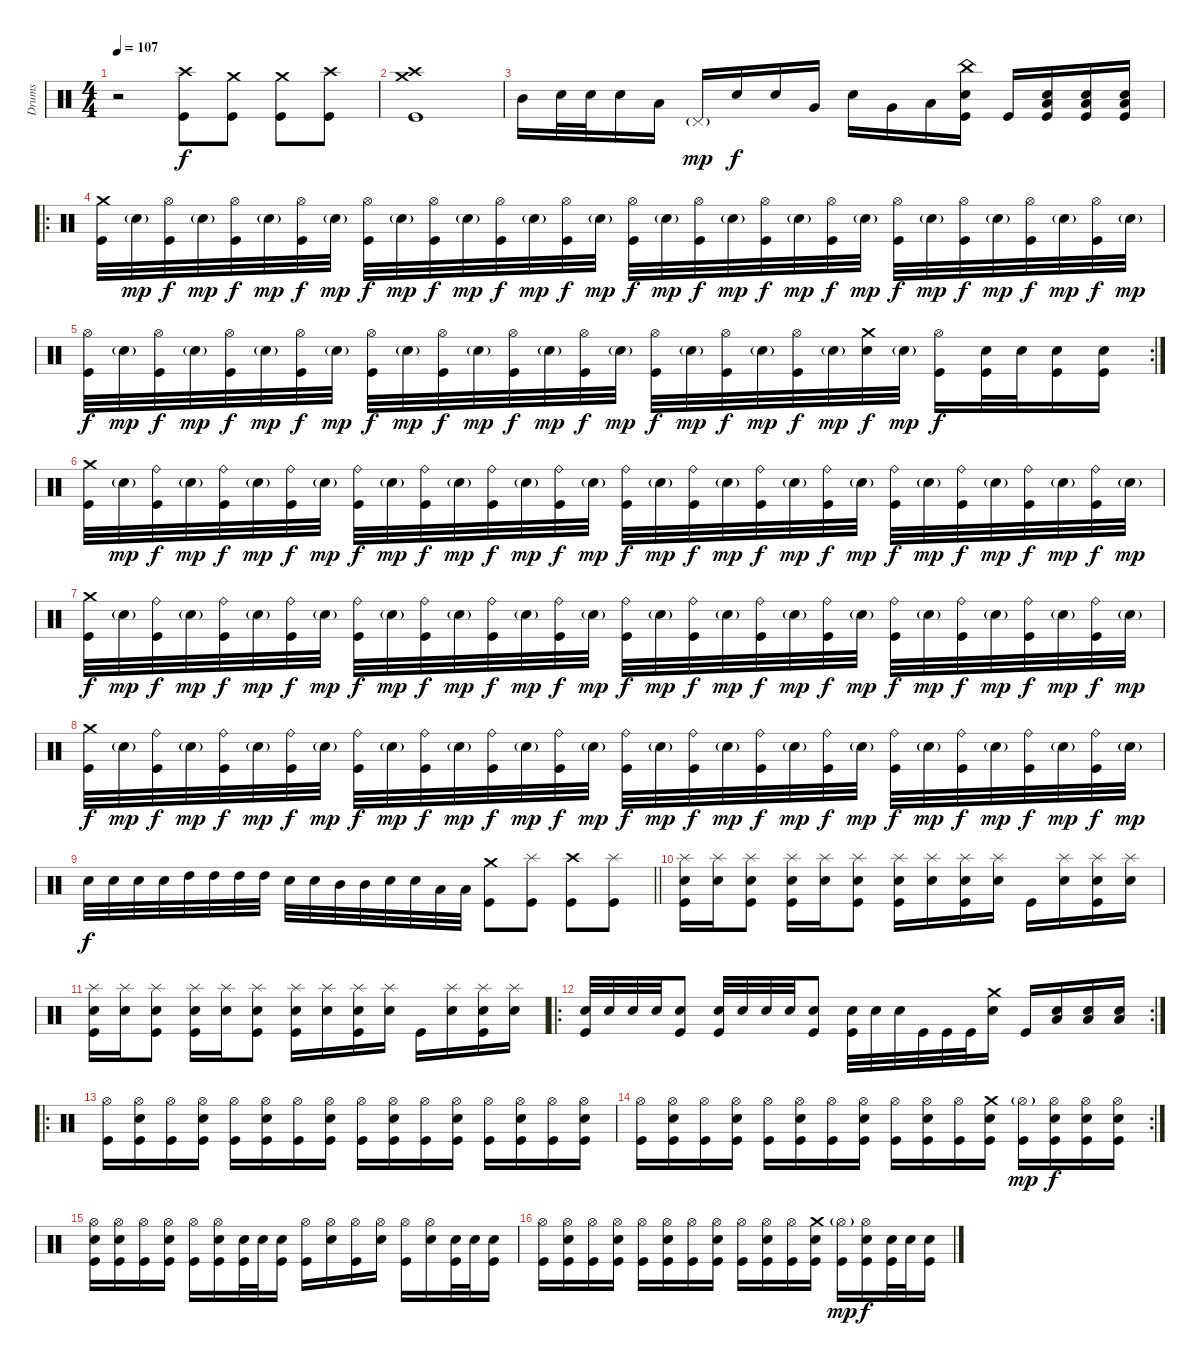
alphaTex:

\track ("Drums" "Drums") {instrument percussion}
\staff {score}
\articulation defaults
\ts (4 4)
\tempo 107
\clef neutral
\ks c
r.2{dy f} ("Crash high (hit)" "Kick (hit)").8 ("Crash medium (hit)" "Kick (hit)").8 ("Crash medium (hit)" "Kick (hit)").8 ("Crash high (hit)" "Kick (hit)").8 |
("Crash high (hit)" "Crash medium (hit)" "Kick (hit)").1 |
"Mid Tom (hit)".16 "Electric Snare (hit)".32 "Electric Snare (hit)".32 "Electric Snare (hit)".16 "Low Tom (hit)".16 "Pedal Hi-Hat (hit)"{g}.16{dy mp} "Electric Snare (hit)".16{dy f} "Electric Snare (hit)".16 "Very Low Tom (hit)".16 "Electric Snare (hit)".16 "Very Low Tom (hit)".16 "Low Floor Tom (hit)".16 ("China (hit)" "Electric Snare (hit)" "Kick (hit)").16 "Kick (hit)".16 ("Low Floor Tom (hit)" "Electric Snare (hit)" "Kick (hit)").16 ("Low Floor Tom (hit)" "Electric Snare (hit)" "Kick (hit)").16 ("Low Floor Tom (hit)" "Electric Snare (hit)" "Kick (hit)").16 |
\ro
("Crash medium (hit)" "Kick (hit)").32 "Electric Snare (hit)"{g}.32{dy mp} ("Hi-Hat (open)" "Kick (hit)").32{dy f} "Electric Snare (hit)"{g}.32{dy mp} ("Hi-Hat (open)" "Kick (hit)").32{dy f} "Electric Snare (hit)"{g}.32{dy mp} ("Hi-Hat (open)" "Kick (hit)").32{dy f} "Electric Snare (hit)"{g}.32{dy mp} ("Hi-Hat (open)" "Kick (hit)").32{dy f} "Electric Snare (hit)"{g}.32{dy mp} ("Hi-Hat (open)" "Kick (hit)").32{dy f} "Electric Snare (hit)"{g}.32{dy mp} ("Hi-Hat (open)" "Kick (hit)").32{dy f} "Electric Snare (hit)"{g}.32{dy mp} ("Hi-Hat (open)" "Kick (hit)").32{dy f} "Electric Snare (hit)"{g}.32{dy mp} ("Hi-Hat (open)" "Kick (hit)").32{dy f} "Electric Snare (hit)"{g}.32{dy mp} ("Hi-Hat (open)" "Kick (hit)").32{dy f} "Electric Snare (hit)"{g}.32{dy mp} ("Hi-Hat (open)" "Kick (hit)").32{dy f} "Electric Snare (hit)"{g}.32{dy mp} ("Hi-Hat (open)" "Kick (hit)").32{dy f} "Electric Snare (hit)"{g}.32{dy mp} ("Hi-Hat (open)" "Kick (hit)").32{dy f} "Electric Snare (hit)"{g}.32{dy mp} ("Hi-Hat (open)" "Kick (hit)").32{dy f} "Electric Snare (hit)"{g}.32{dy mp} ("Hi-Hat (open)" "Kick (hit)").32{dy f} "Electric Snare (hit)"{g}.32{dy mp} ("Hi-Hat (open)" "Kick (hit)").32{dy f} "Electric Snare (hit)"{g}.32{dy mp} |
\rc 2
("Hi-Hat (open)" "Kick (hit)").32{dy f} "Electric Snare (hit)"{g}.32{dy mp} ("Hi-Hat (open)" "Kick (hit)").32{dy f} "Electric Snare (hit)"{g}.32{dy mp} ("Hi-Hat (open)" "Kick (hit)").32{dy f} "Electric Snare (hit)"{g}.32{dy mp} ("Hi-Hat (open)" "Kick (hit)").32{dy f} "Electric Snare (hit)"{g}.32{dy mp} ("Hi-Hat (open)" "Kick (hit)").32{dy f} "Electric Snare (hit)"{g}.32{dy mp} ("Hi-Hat (open)" "Kick (hit)").32{dy f} "Electric Snare (hit)"{g}.32{dy mp} ("Hi-Hat (open)" "Kick (hit)").32{dy f} "Electric Snare (hit)"{g}.32{dy mp} ("Hi-Hat (open)" "Kick (hit)").32{dy f} "Electric Snare (hit)"{g}.32{dy mp} ("Hi-Hat (open)" "Kick (hit)").32{dy f} "Electric Snare (hit)"{g}.32{dy mp} ("Hi-Hat (open)" "Kick (hit)").32{dy f} "Electric Snare (hit)"{g}.32{dy mp} ("Hi-Hat (open)" "Kick (hit)").32{dy f} "Electric Snare (hit)"{g}.32{dy mp} ("Crash medium (hit)" "Electric Snare (hit)").32{dy f} "Electric Snare (hit)"{g}.32{dy mp} ("Hi-Hat (open)" "Kick (hit)").16{dy f} ("Kick (hit)" "Electric Snare (hit)").32 "Electric Snare (hit)".32 ("Kick (hit)" "Electric Snare (hit)").16 ("Kick (hit)" "Electric Snare (hit)").16 |
("Crash medium (hit)" "Kick (hit)").32 "Electric Snare (hit)"{g}.32{dy mp} ("Ride (bell)" "Kick (hit)").32{dy f} "Electric Snare (hit)"{g}.32{dy mp} ("Ride (bell)" "Kick (hit)").32{dy f} "Electric Snare (hit)"{g}.32{dy mp} ("Ride (bell)" "Kick (hit)").32{dy f} "Electric Snare (hit)"{g}.32{dy mp} ("Ride (bell)" "Kick (hit)").32{dy f} "Electric Snare (hit)"{g}.32{dy mp} ("Ride (bell)" "Kick (hit)").32{dy f} "Electric Snare (hit)"{g}.32{dy mp} ("Ride (bell)" "Kick (hit)").32{dy f} "Electric Snare (hit)"{g}.32{dy mp} ("Ride (bell)" "Kick (hit)").32{dy f} "Electric Snare (hit)"{g}.32{dy mp} ("Ride (bell)" "Kick (hit)").32{dy f} "Electric Snare (hit)"{g}.32{dy mp} ("Ride (bell)" "Kick (hit)").32{dy f} "Electric Snare (hit)"{g}.32{dy mp} ("Ride (bell)" "Kick (hit)").32{dy f} "Electric Snare (hit)"{g}.32{dy mp} ("Ride (bell)" "Kick (hit)").32{dy f} "Electric Snare (hit)"{g}.32{dy mp} ("Ride (bell)" "Kick (hit)").32{dy f} "Electric Snare (hit)"{g}.32{dy mp} ("Ride (bell)" "Kick (hit)").32{dy f} "Electric Snare (hit)"{g}.32{dy mp} ("Ride (bell)" "Kick (hit)").32{dy f} "Electric Snare (hit)"{g}.32{dy mp} ("Ride (bell)" "Kick (hit)").32{dy f} "Electric Snare (hit)"{g}.32{dy mp} |
("Crash medium (hit)" "Kick (hit)").32{dy f} "Electric Snare (hit)"{g}.32{dy mp} ("Ride (bell)" "Kick (hit)").32{dy f} "Electric Snare (hit)"{g}.32{dy mp} ("Ride (bell)" "Kick (hit)").32{dy f} "Electric Snare (hit)"{g}.32{dy mp} ("Ride (bell)" "Kick (hit)").32{dy f} "Electric Snare (hit)"{g}.32{dy mp} ("Ride (bell)" "Kick (hit)").32{dy f} "Electric Snare (hit)"{g}.32{dy mp} ("Ride (bell)" "Kick (hit)").32{dy f} "Electric Snare (hit)"{g}.32{dy mp} ("Ride (bell)" "Kick (hit)").32{dy f} "Electric Snare (hit)"{g}.32{dy mp} ("Ride (bell)" "Kick (hit)").32{dy f} "Electric Snare (hit)"{g}.32{dy mp} ("Ride (bell)" "Kick (hit)").32{dy f} "Electric Snare (hit)"{g}.32{dy mp} ("Ride (bell)" "Kick (hit)").32{dy f} "Electric Snare (hit)"{g}.32{dy mp} ("Ride (bell)" "Kick (hit)").32{dy f} "Electric Snare (hit)"{g}.32{dy mp} ("Ride (bell)" "Kick (hit)").32{dy f} "Electric Snare (hit)"{g}.32{dy mp} ("Ride (bell)" "Kick (hit)").32{dy f} "Electric Snare (hit)"{g}.32{dy mp} ("Ride (bell)" "Kick (hit)").32{dy f} "Electric Snare (hit)"{g}.32{dy mp} ("Ride (bell)" "Kick (hit)").32{dy f} "Electric Snare (hit)"{g}.32{dy mp} ("Ride (bell)" "Kick (hit)").32{dy f} "Electric Snare (hit)"{g}.32{dy mp} |
("Crash medium (hit)" "Kick (hit)").32{dy f} "Electric Snare (hit)"{g}.32{dy mp} ("Ride (bell)" "Kick (hit)").32{dy f} "Electric Snare (hit)"{g}.32{dy mp} ("Ride (bell)" "Kick (hit)").32{dy f} "Electric Snare (hit)"{g}.32{dy mp} ("Ride (bell)" "Kick (hit)").32{dy f} "Electric Snare (hit)"{g}.32{dy mp} ("Ride (bell)" "Kick (hit)").32{dy f} "Electric Snare (hit)"{g}.32{dy mp} ("Ride (bell)" "Kick (hit)").32{dy f} "Electric Snare (hit)"{g}.32{dy mp} ("Ride (bell)" "Kick (hit)").32{dy f} "Electric Snare (hit)"{g}.32{dy mp} ("Ride (bell)" "Kick (hit)").32{dy f} "Electric Snare (hit)"{g}.32{dy mp} ("Ride (bell)" "Kick (hit)").32{dy f} "Electric Snare (hit)"{g}.32{dy mp} ("Ride (bell)" "Kick (hit)").32{dy f} "Electric Snare (hit)"{g}.32{dy mp} ("Ride (bell)" "Kick (hit)").32{dy f} "Electric Snare (hit)"{g}.32{dy mp} ("Ride (bell)" "Kick (hit)").32{dy f} "Electric Snare (hit)"{g}.32{dy mp} ("Ride (bell)" "Kick (hit)").32{dy f} "Electric Snare (hit)"{g}.32{dy mp} ("Ride (bell)" "Kick (hit)").32{dy f} "Electric Snare (hit)"{g}.32{dy mp} ("Ride (bell)" "Kick (hit)").32{dy f} "Electric Snare (hit)"{g}.32{dy mp} ("Ride (bell)" "Kick (hit)").32{dy f} "Electric Snare (hit)"{g}.32{dy mp} |
\barLineRight lightlight "Electric Snare (hit)".32{dy f} "Electric Snare (hit)".32 "Electric Snare (hit)".32 "Electric Snare (hit)".32 "High Tom (hit)".32 "High Tom (hit)".32 "High Tom (hit)".32 "High Tom (hit)".32 "Electric Snare (hit)".32 "Electric Snare (hit)".32 "Mid Tom (hit)".32 "Mid Tom (hit)".32 "Electric Snare (hit)".32 "Electric Snare (hit)".32 "Low Tom (hit)".32 "Low Tom (hit)".32
("Crash medium (hit)" "Kick (hit)").8 ("Splash (hit)" "Kick (hit)").8 ("Crash high (hit)" "Kick (hit)").8 ("Splash (hit)" "Kick (hit)").8 |
("Electric Snare (hit)" "Splash (hit)" "Kick (hit)").16 ("Electric Snare (hit)" "Splash (hit)").16 ("Electric Snare (hit)" "Splash (hit)" "Kick (hit)").8 ("Splash (hit)" "Electric Snare (hit)" "Kick (hit)").16 ("Splash (hit)" "Electric Snare (hit)").16 ("Splash (hit)" "Electric Snare (hit)" "Kick (hit)").8 ("Splash (hit)" "Electric Snare (hit)" "Kick (hit)").16 ("Splash (hit)" "Electric Snare (hit)").16 ("Splash (hit)" "Electric Snare (hit)" "Kick (hit)").16 ("Splash (hit)" "Electric Snare (hit)").16 "Kick (hit)".16 ("Splash (hit)" "Electric Snare (hit)").16 ("Splash (hit)" "Electric Snare (hit)" "Kick (hit)").16 ("Splash (hit)" "Electric Snare (hit)").16 |
("Electric Snare (hit)" "Splash (hit)" "Kick (hit)").16 ("Electric Snare (hit)" "Splash (hit)").16 ("Electric Snare (hit)" "Splash (hit)" "Kick (hit)").8 ("Splash (hit)" "Electric Snare (hit)" "Kick (hit)").16 ("Splash (hit)" "Electric Snare (hit)").16 ("Splash (hit)" "Electric Snare (hit)" "Kick (hit)").8 ("Splash (hit)" "Electric Snare (hit)" "Kick (hit)").16 ("Splash (hit)" "Electric Snare (hit)").16 ("Splash (hit)" "Electric Snare (hit)" "Kick (hit)").16 ("Splash (hit)" "Electric Snare (hit)").16 "Kick (hit)".16 ("Splash (hit)" "Electric Snare (hit)").16 ("Splash (hit)" "Electric Snare (hit)" "Kick (hit)").16 ("Splash (hit)" "Electric Snare (hit)").16 |
\ro
\rc 2
("Electric Snare (hit)" "Kick (hit)").32 "Electric Snare (hit)".32 "Electric Snare (hit)".32 "Electric Snare (hit)".32 ("Electric Snare (hit)" "Kick (hit)").8 ("Electric Snare (hit)" "Kick (hit)").32 "Electric Snare (hit)".32 "Electric Snare (hit)".32 "Electric Snare (hit)".32 ("Electric Snare (hit)" "Kick (hit)").8 ("Electric Snare (hit)" "Kick (hit)").32 "Electric Snare (hit)".32 "Electric Snare (hit)".32 "Kick (hit)".32 "Kick (hit)".32 "Kick (hit)".32 ("Crash medium (hit)" "Electric Snare (hit)").16 "Kick (hit)".16 ("Electric Snare (hit)" "Low Floor Tom (hit)").16 ("Electric Snare (hit)" "Low Floor Tom (hit)").16 ("Electric Snare (hit)" "Low Floor Tom (hit)").16 |
\ro
("Hi-Hat (open)" "Kick (hit)").16 ("Hi-Hat (open)" "Electric Snare (hit)" "Kick (hit)").16 ("Hi-Hat (open)" "Kick (hit)").16 ("Hi-Hat (open)" "Electric Snare (hit)" "Kick (hit)").16 ("Hi-Hat (open)" "Kick (hit)").16 ("Hi-Hat (open)" "Electric Snare (hit)" "Kick (hit)").16 ("Hi-Hat (open)" "Kick (hit)").16 ("Hi-Hat (open)" "Electric Snare (hit)" "Kick (hit)").16 ("Hi-Hat (open)" "Kick (hit)").16 ("Hi-Hat (open)" "Electric Snare (hit)" "Kick (hit)").16 ("Hi-Hat (open)" "Kick (hit)").16 ("Hi-Hat (open)" "Electric Snare (hit)" "Kick (hit)").16 ("Hi-Hat (open)" "Kick (hit)").16 ("Hi-Hat (open)" "Electric Snare (hit)" "Kick (hit)").16 ("Hi-Hat (open)" "Kick (hit)").16 ("Hi-Hat (open)" "Electric Snare (hit)" "Kick (hit)").16 |
\rc 2
("Hi-Hat (open)" "Kick (hit)").16 ("Hi-Hat (open)" "Electric Snare (hit)" "Kick (hit)").16 ("Hi-Hat (open)" "Kick (hit)").16 ("Hi-Hat (open)" "Electric Snare (hit)" "Kick (hit)").16 ("Hi-Hat (open)" "Kick (hit)").16 ("Hi-Hat (open)" "Electric Snare (hit)" "Kick (hit)").16 ("Hi-Hat (open)" "Kick (hit)").16 ("Hi-Hat (open)" "Electric Snare (hit)" "Kick (hit)").16 ("Hi-Hat (open)" "Kick (hit)").16 ("Hi-Hat (open)" "Electric Snare (hit)" "Kick (hit)").16 ("Hi-Hat (open)" "Kick (hit)").16 ("Crash medium (hit)" "Electric Snare (hit)" "Kick (hit)").16 ("Hi-Hat (open)"{g} "Kick (hit)").16{dy mp} ("Hi-Hat (open)" "Electric Snare (hit)" "Kick (hit)").16{dy f} ("Hi-Hat (open)" "Electric Snare (hit)" "Kick (hit)").16 ("Hi-Hat (open)" "Electric Snare (hit)" "Kick (hit)").16 |
("Hi-Hat (open)" "Snare (hit)" "Kick (hit)").16 ("Hi-Hat (open)" "Electric Snare (hit)" "Kick (hit)").16 ("Hi-Hat (open)" "Kick (hit)").16 ("Hi-Hat (open)" "Electric Snare (hit)" "Kick (hit)").16 ("Hi-Hat (open)" "Kick (hit)").16 ("Hi-Hat (open)" "Electric Snare (hit)" "Kick (hit)").16 ("Electric Snare (hit)" "Kick (hit)").32 "Electric Snare (hit)".32 ("Electric Snare (hit)" "Kick (hit)").16 ("Hi-Hat (open)" "Kick (hit)").16 ("Hi-Hat (open)" "Electric Snare (hit)").16 ("Hi-Hat (open)" "Kick (hit)").16 ("Hi-Hat (open)" "Electric Snare (hit)").16 ("Hi-Hat (open)" "Kick (hit)").16 ("Hi-Hat (open)" "Electric Snare (hit)").16 ("Kick (hit)" "Electric Snare (hit)").32 "Electric Snare (hit)".32 ("Kick (hit)" "Electric Snare (hit)").16 |
("Hi-Hat (open)" "Kick (hit)").16 ("Hi-Hat (open)" "Electric Snare (hit)" "Kick (hit)").16 ("Hi-Hat (open)" "Kick (hit)").16 ("Hi-Hat (open)" "Electric Snare (hit)" "Kick (hit)").16 ("Hi-Hat (open)" "Kick (hit)").16 ("Hi-Hat (open)" "Electric Snare (hit)" "Kick (hit)").16 ("Hi-Hat (open)" "Kick (hit)").16 ("Hi-Hat (open)" "Electric Snare (hit)" "Kick (hit)").16 ("Hi-Hat (open)" "Kick (hit)").16 ("Hi-Hat (open)" "Electric Snare (hit)" "Kick (hit)").16 ("Hi-Hat (open)" "Kick (hit)").16 ("Crash medium (hit)" "Electric Snare (hit)" "Kick (hit)").16 ("Hi-Hat (open)"{g} "Kick (hit)").16{dy mp} ("Hi-Hat (open)" "Electric Snare (hit)" "Kick (hit)").16{dy f} ("Electric Snare (hit)" "Kick (hit)").32 "Electric Snare (hit)".32 ("Electric Snare (hit)" "Kick (hit)").16
